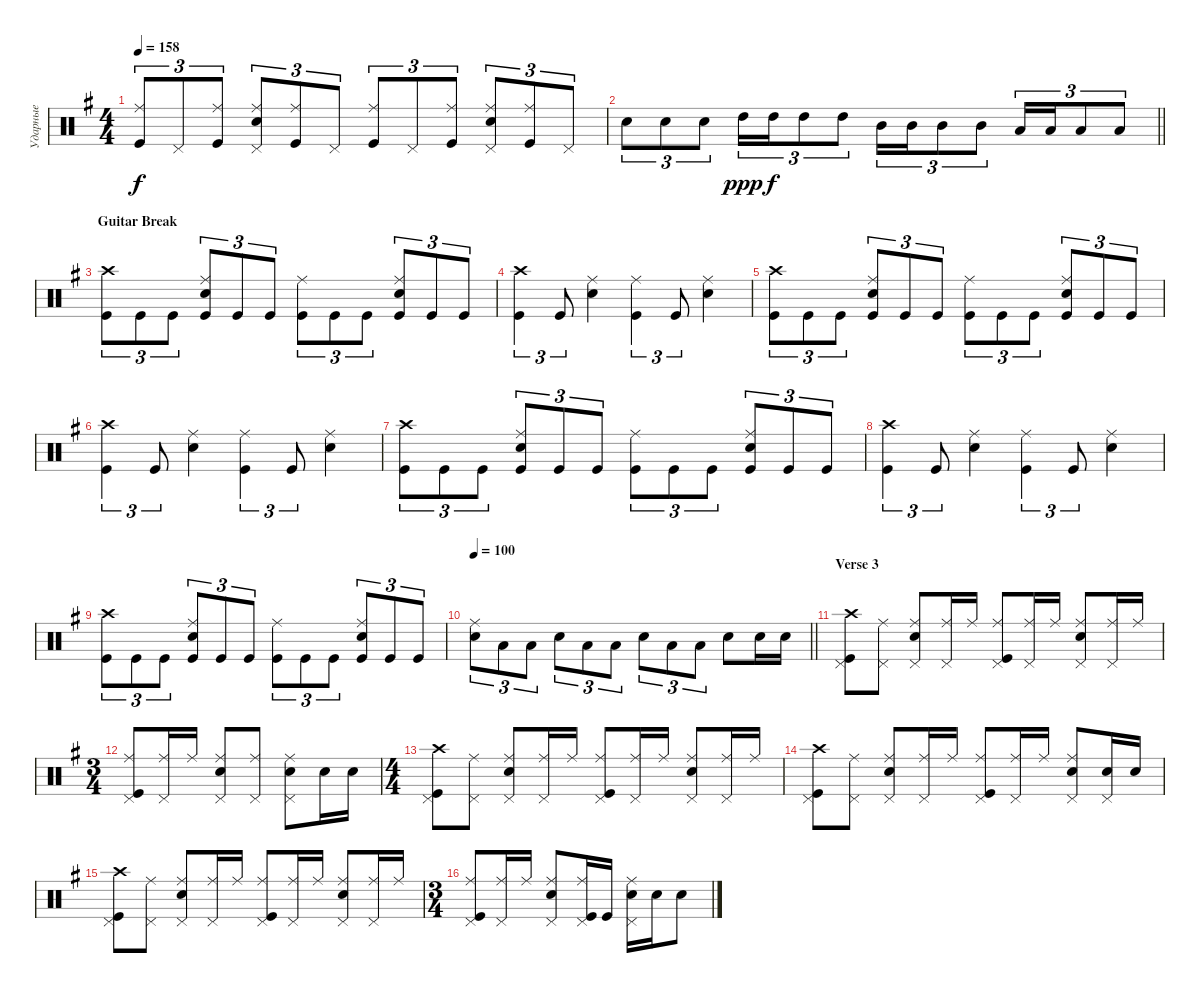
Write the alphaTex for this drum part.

\track ("Ударные" "Ударные") {instrument percussion}
\staff {score}
\articulation defaults
\ts (4 4)
\tempo 158
\clef neutral
\ks eminor
("Kick (hit)" "Ride (middle)").8{tu (3 2) bd 120 dy f} "Pedal Hi-Hat (hit)".8{tu (3 2)} ("Kick (hit)" "Ride (middle)").8{tu (3 2) bd 120} ("Snare (hit) 2" "Ride (middle)" "Pedal Hi-Hat (hit)").8{tu (3 2) bd 120} ("Kick (hit)" "Ride (middle)").8{tu (3 2) bd 120} "Pedal Hi-Hat (hit)".8{tu (3 2)} ("Kick (hit)" "Ride (middle)").8{tu (3 2) bd 120} "Pedal Hi-Hat (hit)".8{tu (3 2)} ("Kick (hit)" "Ride (middle)").8{tu (3 2) bd 120} ("Snare (hit) 2" "Ride (middle)" "Pedal Hi-Hat (hit)").8{tu (3 2) bd 120} ("Kick (hit)" "Ride (middle)").8{tu (3 2) bd 120} "Pedal Hi-Hat (hit)".8{tu (3 2)} |
\barLineRight lightlight "Snare (hit) 2".8{tu (3 2)} "Snare (hit) 2".8{tu (3 2)} "Snare (hit) 2".8{tu (3 2)} "High Tom (hit)".16{tu (3 2) dy ppp} "High Tom (hit)".16{tu (3 2) dy f} "High Tom (hit)".8{tu (3 2)} "High Tom (hit)".8{tu (3 2)} "Mid Tom (hit)".16{tu (3 2)} "Mid Tom (hit)".16{tu (3 2)} "Mid Tom (hit)".8{tu (3 2)} "Mid Tom (hit)".8{tu (3 2)} "Low Tom (hit)".16{tu (3 2)} "Low Tom (hit)".16{tu (3 2)} "Low Tom (hit)".8{tu (3 2)} "Low Tom (hit)".8{tu (3 2)}
|
\section ("" "Guitar Break")
("Kick (hit)" "Crash high (hit)").8{tu (3 2) bd 120} "Kick (hit)".8{tu (3 2)} "Kick (hit)".8{tu (3 2)} ("Kick (hit)" "Snare (hit) 2" "Ride (middle)").8{tu (3 2) bd 120} "Kick (hit)".8{tu (3 2)} "Kick (hit)".8{tu (3 2)} ("Kick (hit)" "Ride (middle)").8{tu (3 2) bd 120} "Kick (hit)".8{tu (3 2)} "Kick (hit)".8{tu (3 2)} ("Kick (hit)" "Snare (hit) 2" "Ride (middle)").8{tu (3 2) bd 120} "Kick (hit)".8{tu (3 2)} "Kick (hit)".8{tu (3 2)} |
("Kick (hit)" "Crash high (hit)").4{tu (3 2) bd 120} "Kick (hit)".8{tu (3 2)} ("Snare (hit) 2" "Ride (middle)").4{bd 120} ("Kick (hit)" "Ride (middle)").4{tu (3 2) bd 120} "Kick (hit)".8{tu (3 2)} ("Snare (hit) 2" "Ride (middle)").4{bd 120} |
("Kick (hit)" "Crash high (hit)").8{tu (3 2) bd 120} "Kick (hit)".8{tu (3 2)} "Kick (hit)".8{tu (3 2)} ("Kick (hit)" "Snare (hit) 2" "Ride (middle)").8{tu (3 2) bd 120} "Kick (hit)".8{tu (3 2)} "Kick (hit)".8{tu (3 2)} ("Kick (hit)" "Ride (middle)").8{tu (3 2) bd 120} "Kick (hit)".8{tu (3 2)} "Kick (hit)".8{tu (3 2)} ("Kick (hit)" "Snare (hit) 2" "Ride (middle)").8{tu (3 2) bd 120} "Kick (hit)".8{tu (3 2)} "Kick (hit)".8{tu (3 2)} |
("Kick (hit)" "Crash high (hit)").4{tu (3 2) bd 120} "Kick (hit)".8{tu (3 2)} ("Snare (hit) 2" "Ride (middle)").4{bd 120} ("Kick (hit)" "Ride (middle)").4{tu (3 2) bd 120} "Kick (hit)".8{tu (3 2)} ("Snare (hit) 2" "Ride (middle)").4{bd 120} |
("Kick (hit)" "Crash high (hit)").8{tu (3 2) bd 120} "Kick (hit)".8{tu (3 2)} "Kick (hit)".8{tu (3 2)} ("Kick (hit)" "Snare (hit) 2" "Ride (middle)").8{tu (3 2) bd 120} "Kick (hit)".8{tu (3 2)} "Kick (hit)".8{tu (3 2)} ("Kick (hit)" "Ride (middle)").8{tu (3 2) bd 120} "Kick (hit)".8{tu (3 2)} "Kick (hit)".8{tu (3 2)} ("Kick (hit)" "Snare (hit) 2" "Ride (middle)").8{tu (3 2) bd 120} "Kick (hit)".8{tu (3 2)} "Kick (hit)".8{tu (3 2)} |
("Kick (hit)" "Crash high (hit)").4{tu (3 2) bd 120} "Kick (hit)".8{tu (3 2)} ("Snare (hit) 2" "Ride (middle)").4{bd 120} ("Kick (hit)" "Ride (middle)").4{tu (3 2) bd 120} "Kick (hit)".8{tu (3 2)} ("Snare (hit) 2" "Ride (middle)").4{bd 120} |
("Kick (hit)" "Crash high (hit)").8{tu (3 2) bd 120} "Kick (hit)".8{tu (3 2)} "Kick (hit)".8{tu (3 2)} ("Kick (hit)" "Snare (hit) 2" "Ride (middle)").8{tu (3 2) bd 120} "Kick (hit)".8{tu (3 2)} "Kick (hit)".8{tu (3 2)} ("Kick (hit)" "Ride (middle)").8{tu (3 2) bd 120} "Kick (hit)".8{tu (3 2)} "Kick (hit)".8{tu (3 2)} ("Kick (hit)" "Snare (hit) 2" "Ride (middle)").8{tu (3 2) bd 120} "Kick (hit)".8{tu (3 2)} "Kick (hit)".8{tu (3 2)} |
\tempo 100
\barLineRight lightlight
("Snare (hit) 2" "Ride (middle)").8{tu (3 2) bd 120} "Low Tom (hit)".8{tu (3 2)} "Low Tom (hit)".8{tu (3 2)} "Snare (hit) 2".8{tu (3 2)} "Low Tom (hit)".8{tu (3 2)} "Low Tom (hit)".8{tu (3 2)} "Snare (hit) 2".8{tu (3 2)} "Low Tom (hit)".8{tu (3 2)} "Low Tom (hit)".8{tu (3 2)} "Snare (hit) 2".8 "Snare (hit) 2".16 "Snare (hit) 2".16 |
\section ("" "Verse 3")
("Crash high (hit)" "Kick (hit)" "Pedal Hi-Hat (hit)").8 ("Pedal Hi-Hat (hit)" "Ride (middle)").8 ("Ride (middle)" "Snare (hit) 2" "Pedal Hi-Hat (hit)").8 ("Ride (middle)" "Pedal Hi-Hat (hit)").16 "Ride (middle)".16 ("Ride (middle)" "Kick (hit)" "Pedal Hi-Hat (hit)").8 ("Ride (middle)" "Pedal Hi-Hat (hit)").16 "Ride (middle)".16 ("Ride (middle)" "Snare (hit) 2" "Pedal Hi-Hat (hit)").8 ("Ride (middle)" "Pedal Hi-Hat (hit)").16 "Ride (middle)".16 |
\ts (3 4)
("Ride (middle)" "Kick (hit)" "Pedal Hi-Hat (hit)").8 ("Ride (middle)" "Pedal Hi-Hat (hit)").16 "Ride (middle)".16 ("Ride (middle)" "Snare (hit) 2" "Pedal Hi-Hat (hit)").8 ("Ride (middle)" "Pedal Hi-Hat (hit)").8 ("Snare (hit) 2" "Pedal Hi-Hat (hit)" "Ride (middle)").8 "Snare (hit) 2".16 "Snare (hit) 2".16 |
\ts (4 4)
("Crash high (hit)" "Kick (hit)" "Pedal Hi-Hat (hit)").8 ("Pedal Hi-Hat (hit)" "Ride (middle)").8 ("Ride (middle)" "Snare (hit) 2" "Pedal Hi-Hat (hit)").8 ("Ride (middle)" "Pedal Hi-Hat (hit)").16 "Ride (middle)".16 ("Ride (middle)" "Kick (hit)" "Pedal Hi-Hat (hit)").8 ("Ride (middle)" "Pedal Hi-Hat (hit)").16 "Ride (middle)".16 ("Ride (middle)" "Snare (hit) 2" "Pedal Hi-Hat (hit)").8 ("Ride (middle)" "Pedal Hi-Hat (hit)").16 "Ride (middle)".16 |
("Crash high (hit)" "Kick (hit)" "Pedal Hi-Hat (hit)").8 ("Pedal Hi-Hat (hit)" "Ride (middle)").8 ("Ride (middle)" "Snare (hit) 2" "Pedal Hi-Hat (hit)").8 ("Ride (middle)" "Pedal Hi-Hat (hit)").16 "Ride (middle)".16 ("Ride (middle)" "Kick (hit)" "Pedal Hi-Hat (hit)").8 ("Ride (middle)" "Pedal Hi-Hat (hit)").16 "Ride (middle)".16 ("Ride (middle)" "Snare (hit) 2" "Pedal Hi-Hat (hit)").8 ("Snare (hit) 2" "Pedal Hi-Hat (hit)").16 "Snare (hit) 2".16 |
("Crash high (hit)" "Kick (hit)" "Pedal Hi-Hat (hit)").8 ("Pedal Hi-Hat (hit)" "Ride (middle)").8 ("Ride (middle)" "Snare (hit) 2" "Pedal Hi-Hat (hit)").8 ("Ride (middle)" "Pedal Hi-Hat (hit)").16 "Ride (middle)".16 ("Ride (middle)" "Kick (hit)" "Pedal Hi-Hat (hit)").8 ("Ride (middle)" "Pedal Hi-Hat (hit)").16 "Ride (middle)".16 ("Ride (middle)" "Snare (hit) 2" "Pedal Hi-Hat (hit)").8 ("Ride (middle)" "Pedal Hi-Hat (hit)").16 "Ride (middle)".16 |
\ts (3 4)
("Ride (middle)" "Kick (hit)" "Pedal Hi-Hat (hit)").8 ("Ride (middle)" "Pedal Hi-Hat (hit)").16 "Ride (middle)".16 ("Ride (middle)" "Snare (hit) 2" "Pedal Hi-Hat (hit)").8 ("Ride (middle)" "Pedal Hi-Hat (hit)" "Kick (hit)").16 "Kick (hit)".16 ("Snare (hit) 2" "Pedal Hi-Hat (hit)" "Ride (middle)").16 "Snare (hit) 2".16 "Snare (hit) 2".8
